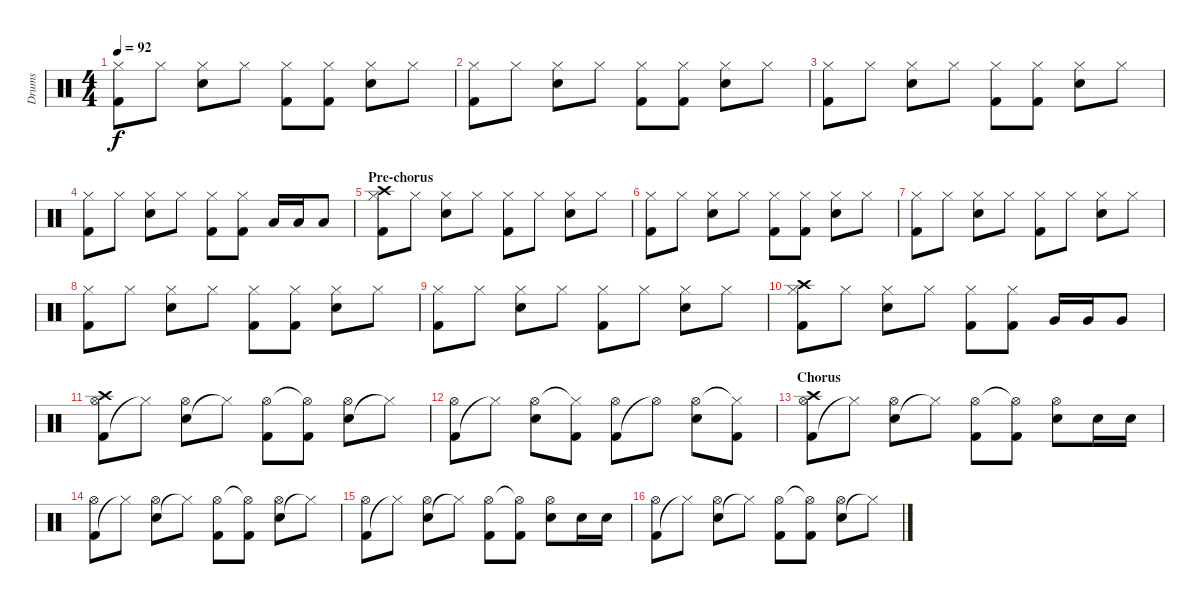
\track ("Drums" "Drums") {instrument percussion}
\staff {score}
\articulation defaults
\ts (4 4)
\tempo 92
\clef neutral
\ks c
("Kick (hit) 2" "Hi-Hat (closed)").8{dy f} "Hi-Hat (closed)".8 ("Electric Snare (hit)" "Hi-Hat (closed)").8 "Hi-Hat (closed)".8 ("Kick (hit) 2" "Hi-Hat (closed)").8 ("Kick (hit) 2" "Hi-Hat (closed)").8 ("Electric Snare (hit)" "Hi-Hat (closed)").8 "Hi-Hat (closed)".8 |
("Kick (hit) 2" "Hi-Hat (closed)").8 "Hi-Hat (closed)".8 ("Electric Snare (hit)" "Hi-Hat (closed)").8 "Hi-Hat (closed)".8 ("Kick (hit) 2" "Hi-Hat (closed)").8 ("Kick (hit) 2" "Hi-Hat (closed)").8 ("Electric Snare (hit)" "Hi-Hat (closed)").8 "Hi-Hat (closed)".8 |
("Kick (hit) 2" "Hi-Hat (closed)").8 "Hi-Hat (closed)".8 ("Electric Snare (hit)" "Hi-Hat (closed)").8 "Hi-Hat (closed)".8 ("Kick (hit) 2" "Hi-Hat (closed)").8 ("Kick (hit) 2" "Hi-Hat (closed)").8 ("Electric Snare (hit)" "Hi-Hat (closed)").8 "Hi-Hat (closed)".8 |
("Kick (hit) 2" "Hi-Hat (closed)").8 "Hi-Hat (closed)".8 ("Electric Snare (hit)" "Hi-Hat (closed)").8 "Hi-Hat (closed)".8 ("Kick (hit) 2" "Hi-Hat (closed)").8 ("Kick (hit) 2" "Hi-Hat (closed)").8 "Low Tom (hit)".16 "Low Tom (hit)".16 "Low Tom (hit)".8 |
\section ("" "Pre-chorus")
("Kick (hit) 2" "Hi-Hat (closed)" "Crash high (hit)").8 "Hi-Hat (closed)".8 ("Electric Snare (hit)" "Hi-Hat (closed)").8 "Hi-Hat (closed)".8 ("Kick (hit) 2" "Hi-Hat (closed)").8 "Hi-Hat (closed)".8 ("Electric Snare (hit)" "Hi-Hat (closed)").8 "Hi-Hat (closed)".8 |
("Kick (hit) 2" "Hi-Hat (closed)").8 "Hi-Hat (closed)".8 ("Electric Snare (hit)" "Hi-Hat (closed)").8 "Hi-Hat (closed)".8 ("Kick (hit) 2" "Hi-Hat (closed)").8 ("Kick (hit) 2" "Hi-Hat (closed)").8 ("Electric Snare (hit)" "Hi-Hat (closed)").8 "Hi-Hat (closed)".8 |
("Kick (hit) 2" "Hi-Hat (closed)").8 "Hi-Hat (closed)".8 ("Electric Snare (hit)" "Hi-Hat (closed)").8 "Hi-Hat (closed)".8 ("Kick (hit) 2" "Hi-Hat (closed)").8 "Hi-Hat (closed)".8 ("Electric Snare (hit)" "Hi-Hat (closed)").8 "Hi-Hat (closed)".8 |
("Kick (hit) 2" "Hi-Hat (closed)").8 "Hi-Hat (closed)".8 ("Electric Snare (hit)" "Hi-Hat (closed)").8 "Hi-Hat (closed)".8 ("Kick (hit) 2" "Hi-Hat (closed)").8 ("Kick (hit) 2" "Hi-Hat (closed)").8 ("Electric Snare (hit)" "Hi-Hat (closed)").8 "Hi-Hat (closed)".8 |
("Kick (hit) 2" "Hi-Hat (closed)").8 "Hi-Hat (closed)".8 ("Electric Snare (hit)" "Hi-Hat (closed)").8 "Hi-Hat (closed)".8 ("Kick (hit) 2" "Hi-Hat (closed)").8 "Hi-Hat (closed)".8 ("Electric Snare (hit)" "Hi-Hat (closed)").8 "Hi-Hat (closed)".8 |
("Kick (hit) 2" "Hi-Hat (closed)" "Crash high (hit)").8 "Hi-Hat (closed)".8 ("Electric Snare (hit)" "Hi-Hat (closed)").8 "Hi-Hat (closed)".8 ("Kick (hit) 2" "Hi-Hat (closed)").8 ("Kick (hit) 2" "Hi-Hat (closed)").8 "Very Low Tom (hit)".16 "Very Low Tom (hit)".16 "Very Low Tom (hit)".8 |
("Kick (hit) 2" "Hi-Hat (open)" "Crash high (hit)").8 "Hi-Hat (closed)"{t}.8 ("Electric Snare (hit)" "Hi-Hat (open)").8 "Hi-Hat (closed)"{t}.8 ("Kick (hit) 2" "Hi-Hat (open)").8 ("Kick (hit) 2" "Hi-Hat (open)"{t}).8 ("Electric Snare (hit)" "Hi-Hat (open)").8 "Hi-Hat (closed)"{t}.8 |
("Kick (hit) 2" "Hi-Hat (open)").8 "Hi-Hat (closed)"{t}.8 ("Electric Snare (hit)" "Hi-Hat (open)").8 ("Kick (hit) 2" "Hi-Hat (closed)"{t}).8 ("Kick (hit) 2" "Hi-Hat (open)").8 "Hi-Hat (open)"{t}.8 ("Electric Snare (hit)" "Hi-Hat (open)").8 ("Kick (hit) 2" "Hi-Hat (closed)"{t}).8 |
\section ("" "Chorus")
("Kick (hit) 2" "Hi-Hat (open)" "Crash high (hit)").8 "Hi-Hat (closed)"{t}.8 ("Electric Snare (hit)" "Hi-Hat (open)").8 "Hi-Hat (closed)"{t}.8 ("Kick (hit) 2" "Hi-Hat (open)").8 ("Kick (hit) 2" "Hi-Hat (open)"{t}).8 ("Electric Snare (hit)" "Hi-Hat (open)").8 "Electric Snare (hit)".16 "Electric Snare (hit)".16 |
("Kick (hit) 2" "Hi-Hat (open)").8 "Hi-Hat (closed)"{t}.8 ("Electric Snare (hit)" "Hi-Hat (open)").8 "Hi-Hat (closed)"{t}.8 ("Kick (hit) 2" "Hi-Hat (open)").8 ("Kick (hit) 2" "Hi-Hat (open)"{t}).8 ("Electric Snare (hit)" "Hi-Hat (open)").8 "Hi-Hat (closed)"{t}.8 |
("Kick (hit) 2" "Hi-Hat (open)").8 "Hi-Hat (closed)"{t}.8 ("Electric Snare (hit)" "Hi-Hat (open)").8 "Hi-Hat (closed)"{t}.8 ("Kick (hit) 2" "Hi-Hat (open)").8 ("Kick (hit) 2" "Hi-Hat (open)"{t}).8 ("Electric Snare (hit)" "Hi-Hat (open)").8 "Electric Snare (hit)".16 "Electric Snare (hit)".16 |
("Kick (hit) 2" "Hi-Hat (open)").8 "Hi-Hat (closed)"{t}.8 ("Electric Snare (hit)" "Hi-Hat (open)").8 "Hi-Hat (closed)"{t}.8 ("Kick (hit) 2" "Hi-Hat (open)").8 ("Kick (hit) 2" "Hi-Hat (open)"{t}).8 ("Electric Snare (hit)" "Hi-Hat (open)").8 "Hi-Hat (closed)"{t}.8
